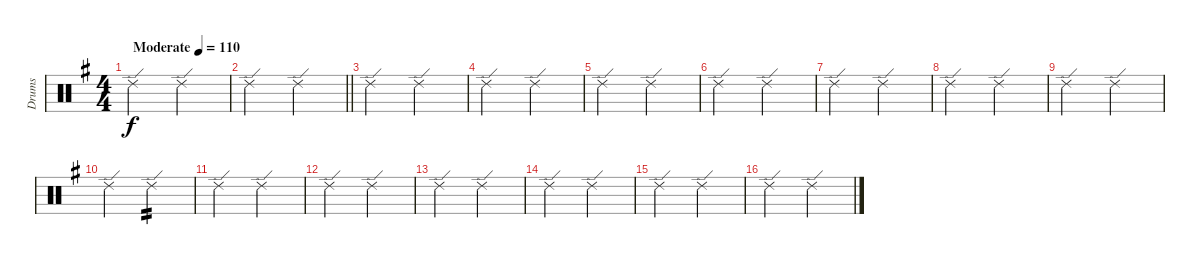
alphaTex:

\track ("Drums" "Drums") {instrument percussion}
\staff {score}
\articulation defaults
\ts (4 4)
\tempo (110 "Moderate")
\clef neutral
\ks g "Ride (edge) 2".2{dy f} "Ride (edge) 2".2
|
\barLineRight lightlight "Ride (edge) 2".2 "Ride (edge) 2".2
|
"Ride (edge) 2".2 "Ride (edge) 2".2 |
"Ride (edge) 2".2 "Ride (edge) 2".2 |
"Ride (edge) 2".2 "Ride (edge) 2".2 |
"Ride (edge) 2".2 "Ride (edge) 2".2 |
"Ride (edge) 2".2 "Ride (edge) 2".2 |
"Ride (edge) 2".2 "Ride (edge) 2".2 |
"Ride (edge) 2".2 "Ride (edge) 2".2 |
"Ride (edge) 2".2 "Ride (edge) 2".2{tp 2} |
"Ride (edge) 2".2 "Ride (edge) 2".2 |
"Ride (edge) 2".2 "Ride (edge) 2".2 |
"Ride (edge) 2".2 "Ride (edge) 2".2 |
"Ride (edge) 2".2 "Ride (edge) 2".2 |
"Ride (edge) 2".2 "Ride (edge) 2".2 |
"Ride (edge) 2".2 "Ride (edge) 2".2
